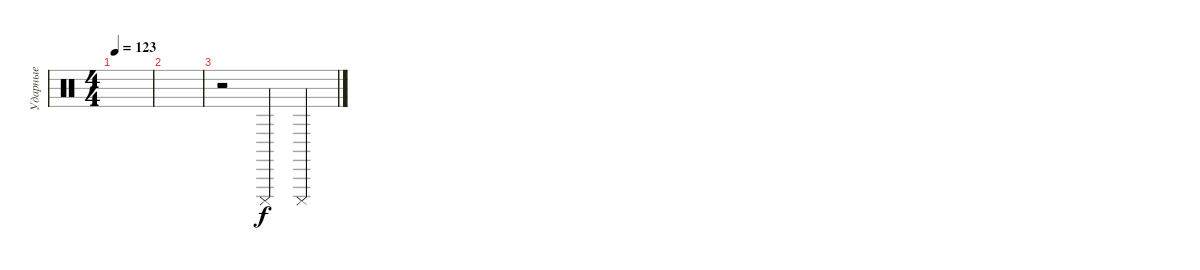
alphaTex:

\track ("Ударные" "Ударные") {instrument percussion}
\staff {score}
\articulation defaults
\ts (4 4)
\tempo 123
\clef neutral
\ks c
|
|
r.2 "Cuica (mute)".4 "Cuica (mute)".4
